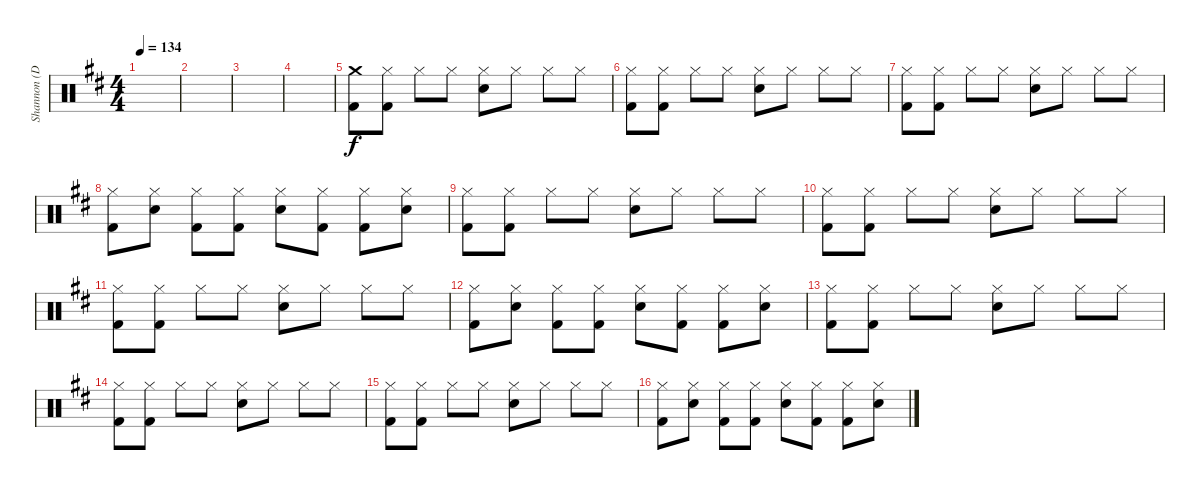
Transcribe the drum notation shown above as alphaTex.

\track ("Shannon (Drums)" "Shannon (D") {instrument percussion}
\staff {score}
\articulation defaults
\ts (4 4)
\tempo 134
\clef neutral
\ks d
|
|
|
|
("Crash medium (hit)" "Kick (hit) 2").8 ("Hi-Hat (closed)" "Kick (hit) 2").8 "Hi-Hat (closed)".8 "Hi-Hat (closed)".8 ("Hi-Hat (closed)" "Electric Snare (hit)").8 "Hi-Hat (closed)".8 "Hi-Hat (closed)".8 "Hi-Hat (closed)".8 |
("Hi-Hat (closed)" "Kick (hit) 2").8 ("Hi-Hat (closed)" "Kick (hit) 2").8 "Hi-Hat (closed)".8 "Hi-Hat (closed)".8 ("Hi-Hat (closed)" "Electric Snare (hit)").8 "Hi-Hat (closed)".8 "Hi-Hat (closed)".8 "Hi-Hat (closed)".8 |
("Hi-Hat (closed)" "Kick (hit) 2").8 ("Hi-Hat (closed)" "Kick (hit) 2").8 "Hi-Hat (closed)".8 "Hi-Hat (closed)".8 ("Hi-Hat (closed)" "Electric Snare (hit)").8 "Hi-Hat (closed)".8 "Hi-Hat (closed)".8 "Hi-Hat (closed)".8 |
("Hi-Hat (closed)" "Kick (hit) 2").8 ("Hi-Hat (closed)" "Electric Snare (hit)").8 ("Hi-Hat (closed)" "Kick (hit) 2").8 ("Hi-Hat (closed)" "Kick (hit) 2").8 ("Hi-Hat (closed)" "Electric Snare (hit)").8 ("Hi-Hat (closed)" "Kick (hit) 2").8 ("Hi-Hat (closed)" "Kick (hit) 2").8 ("Hi-Hat (closed)" "Electric Snare (hit)").8 |
("Hi-Hat (closed)" "Kick (hit) 2").8 ("Hi-Hat (closed)" "Kick (hit) 2").8 "Hi-Hat (closed)".8 "Hi-Hat (closed)".8 ("Hi-Hat (closed)" "Electric Snare (hit)").8 "Hi-Hat (closed)".8 "Hi-Hat (closed)".8 "Hi-Hat (closed)".8 |
("Hi-Hat (closed)" "Kick (hit) 2").8 ("Hi-Hat (closed)" "Kick (hit) 2").8 "Hi-Hat (closed)".8 "Hi-Hat (closed)".8 ("Hi-Hat (closed)" "Electric Snare (hit)").8 "Hi-Hat (closed)".8 "Hi-Hat (closed)".8 "Hi-Hat (closed)".8 |
("Hi-Hat (closed)" "Kick (hit) 2").8 ("Hi-Hat (closed)" "Kick (hit) 2").8 "Hi-Hat (closed)".8 "Hi-Hat (closed)".8 ("Hi-Hat (closed)" "Electric Snare (hit)").8 "Hi-Hat (closed)".8 "Hi-Hat (closed)".8 "Hi-Hat (closed)".8 |
("Hi-Hat (closed)" "Kick (hit) 2").8 ("Hi-Hat (closed)" "Electric Snare (hit)").8 ("Hi-Hat (closed)" "Kick (hit) 2").8 ("Hi-Hat (closed)" "Kick (hit) 2").8 ("Hi-Hat (closed)" "Electric Snare (hit)").8 ("Hi-Hat (closed)" "Kick (hit) 2").8 ("Hi-Hat (closed)" "Kick (hit) 2").8 ("Hi-Hat (closed)" "Electric Snare (hit)").8 |
("Hi-Hat (closed)" "Kick (hit) 2").8 ("Hi-Hat (closed)" "Kick (hit) 2").8 "Hi-Hat (closed)".8 "Hi-Hat (closed)".8 ("Hi-Hat (closed)" "Electric Snare (hit)").8 "Hi-Hat (closed)".8 "Hi-Hat (closed)".8 "Hi-Hat (closed)".8 |
("Hi-Hat (closed)" "Kick (hit) 2").8 ("Hi-Hat (closed)" "Kick (hit) 2").8 "Hi-Hat (closed)".8 "Hi-Hat (closed)".8 ("Hi-Hat (closed)" "Electric Snare (hit)").8 "Hi-Hat (closed)".8 "Hi-Hat (closed)".8 "Hi-Hat (closed)".8 |
("Hi-Hat (closed)" "Kick (hit) 2").8 ("Hi-Hat (closed)" "Kick (hit) 2").8 "Hi-Hat (closed)".8 "Hi-Hat (closed)".8 ("Hi-Hat (closed)" "Electric Snare (hit)").8 "Hi-Hat (closed)".8 "Hi-Hat (closed)".8 "Hi-Hat (closed)".8 |
("Hi-Hat (closed)" "Kick (hit) 2").8 ("Hi-Hat (closed)" "Electric Snare (hit)").8 ("Hi-Hat (closed)" "Kick (hit) 2").8 ("Hi-Hat (closed)" "Kick (hit) 2").8 ("Hi-Hat (closed)" "Electric Snare (hit)").8 ("Hi-Hat (closed)" "Kick (hit) 2").8 ("Hi-Hat (closed)" "Kick (hit) 2").8 ("Hi-Hat (closed)" "Electric Snare (hit)").8
